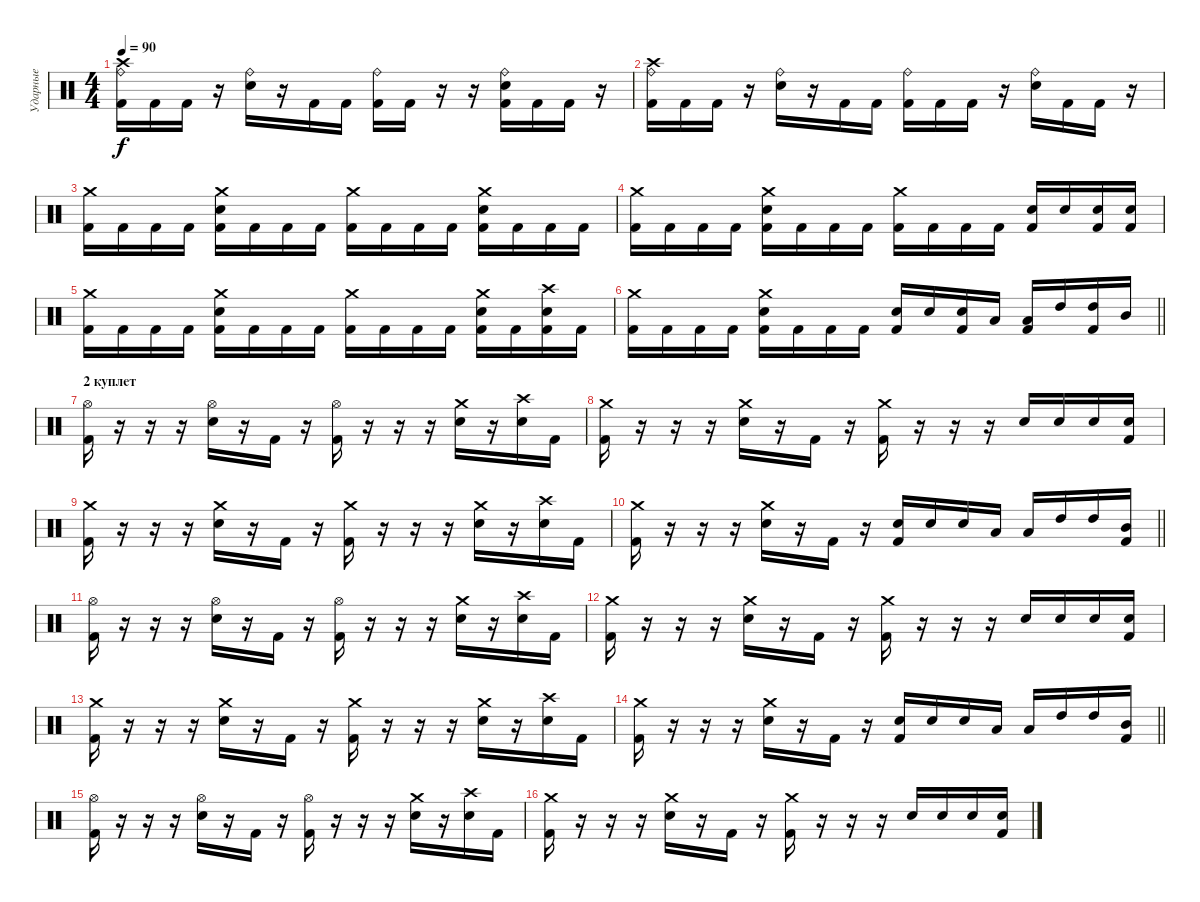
\track ("Ударные" "Ударные") {instrument percussion}
\staff {score}
\articulation defaults
\ts (4 4)
\tempo 90
\clef neutral
\ks c
("Ride (bell)" "Crash high (hit)" "Kick (hit) 2").16{dy f} "Kick (hit) 2".16 "Kick (hit) 2".16 r.16 ("Ride (bell)" "Snare (hit) 2").16 r.16 "Kick (hit) 2".16 "Kick (hit) 2".16 ("Ride (bell)" "Kick (hit) 2").16 "Kick (hit) 2".16 r.16 r.16 ("Ride (bell)" "Snare (hit) 2" "Kick (hit) 2").16 "Kick (hit) 2".16 "Kick (hit) 2".16 r.16 |
("Ride (bell)" "Crash high (hit)" "Kick (hit) 2").16 "Kick (hit) 2".16 "Kick (hit) 2".16 r.16 ("Ride (bell)" "Snare (hit) 2").16 r.16 "Kick (hit) 2".16 "Kick (hit) 2".16 ("Ride (bell)" "Kick (hit) 2").16 "Kick (hit) 2".16 "Kick (hit) 2".16 r.16 ("Ride (bell)" "Snare (hit) 2").16 "Kick (hit) 2".16 "Kick (hit) 2".16 r.16 |
("Crash medium (hit)" "Kick (hit) 2").16 "Kick (hit) 2".16 "Kick (hit) 2".16 "Kick (hit) 2".16 ("Crash medium (hit)" "Snare (hit) 2" "Kick (hit) 2").16 "Kick (hit) 2".16 "Kick (hit) 2".16 "Kick (hit) 2".16 ("Crash medium (hit)" "Kick (hit) 2").16 "Kick (hit) 2".16 "Kick (hit) 2".16 "Kick (hit) 2".16 ("Crash medium (hit)" "Snare (hit) 2" "Kick (hit) 2").16 "Kick (hit) 2".16 "Kick (hit) 2".16 "Kick (hit) 2".16 |
("Crash medium (hit)" "Kick (hit) 2").16 "Kick (hit) 2".16 "Kick (hit) 2".16 "Kick (hit) 2".16 ("Crash medium (hit)" "Snare (hit) 2" "Kick (hit) 2").16 "Kick (hit) 2".16 "Kick (hit) 2".16 "Kick (hit) 2".16 ("Crash medium (hit)" "Kick (hit) 2").16 "Kick (hit) 2".16 "Kick (hit) 2".16 "Kick (hit) 2".16 ("Snare (hit) 2" "Kick (hit) 2").16 "Snare (hit) 2".16 ("Snare (hit) 2" "Kick (hit) 2").16 ("Snare (hit) 2" "Kick (hit) 2").16 |
("Crash medium (hit)" "Kick (hit) 2").16 "Kick (hit) 2".16 "Kick (hit) 2".16 "Kick (hit) 2".16 ("Crash medium (hit)" "Snare (hit) 2" "Kick (hit) 2").16 "Kick (hit) 2".16 "Kick (hit) 2".16 "Kick (hit) 2".16 ("Crash medium (hit)" "Kick (hit) 2").16 "Kick (hit) 2".16 "Kick (hit) 2".16 "Kick (hit) 2".16 ("Crash medium (hit)" "Snare (hit) 2" "Kick (hit) 2").16 "Kick (hit) 2".16 ("Crash high (hit)" "Snare (hit) 2" "Kick (hit) 2").16 "Kick (hit) 2".16 |
\barLineRight lightlight
("Crash medium (hit)" "Kick (hit) 2").16 "Kick (hit) 2".16 "Kick (hit) 2".16 "Kick (hit) 2".16 ("Crash medium (hit)" "Snare (hit) 2" "Kick (hit) 2").16 "Kick (hit) 2".16 "Kick (hit) 2".16 "Kick (hit) 2".16 ("Snare (hit) 2" "Kick (hit) 2").16 "Snare (hit) 2".16 ("Snare (hit) 2" "Kick (hit) 2").16 "Low Tom (hit)".16 ("Low Tom (hit)" "Kick (hit) 2").16 "High Tom (hit)".16 ("High Tom (hit)" "Kick (hit) 2").16 "Mid Tom (hit)".16 |
\section ("" "2 куплет")
("Hi-Hat (open)" "Kick (hit) 2").16 r.16 r.16 r.16 ("Hi-Hat (open)" "Snare (hit) 2").16 r.16 "Kick (hit) 2".16 r.16 ("Hi-Hat (open)" "Kick (hit) 2").16 r.16 r.16 r.16 ("Crash medium (hit)" "Snare (hit) 2").16 r.16 ("Crash high (hit)" "Snare (hit) 2").16 "Kick (hit) 2".16 |
("Crash medium (hit)" "Kick (hit) 2").16 r.16 r.16 r.16 ("Crash medium (hit)" "Snare (hit) 2").16 r.16 "Kick (hit) 2".16 r.16 ("Crash medium (hit)" "Kick (hit) 2").16 r.16 r.16 r.16 "Snare (hit) 2".16 "Snare (hit) 2".16 "Snare (hit) 2".16 ("Snare (hit) 2" "Kick (hit) 2").16 |
("Crash medium (hit)" "Kick (hit) 2").16 r.16 r.16 r.16 ("Crash medium (hit)" "Snare (hit) 2").16 r.16 "Kick (hit) 2".16 r.16 ("Crash medium (hit)" "Kick (hit) 2").16 r.16 r.16 r.16 ("Crash medium (hit)" "Snare (hit) 2").16 r.16 ("Crash high (hit)" "Snare (hit) 2").16 "Kick (hit) 2".16 |
\barLineRight lightlight
("Crash medium (hit)" "Kick (hit) 2").16 r.16 r.16 r.16 ("Crash medium (hit)" "Snare (hit) 2").16 r.16 "Kick (hit) 2".16 r.16 ("Snare (hit) 2" "Kick (hit) 2").16 "Snare (hit) 2".16 "Snare (hit) 2".16 "Low Tom (hit)".16 "Low Tom (hit)".16 "High Tom (hit)".16 "High Tom (hit)".16 ("Mid Tom (hit)" "Kick (hit) 2").16 |
("Hi-Hat (open)" "Kick (hit) 2").16 r.16 r.16 r.16 ("Hi-Hat (open)" "Snare (hit) 2").16 r.16 "Kick (hit) 2".16 r.16 ("Hi-Hat (open)" "Kick (hit) 2").16 r.16 r.16 r.16 ("Crash medium (hit)" "Snare (hit) 2").16 r.16 ("Crash high (hit)" "Snare (hit) 2").16 "Kick (hit) 2".16 |
("Crash medium (hit)" "Kick (hit) 2").16 r.16 r.16 r.16 ("Crash medium (hit)" "Snare (hit) 2").16 r.16 "Kick (hit) 2".16 r.16 ("Crash medium (hit)" "Kick (hit) 2").16 r.16 r.16 r.16 "Snare (hit) 2".16 "Snare (hit) 2".16 "Snare (hit) 2".16 ("Snare (hit) 2" "Kick (hit) 2").16 |
("Crash medium (hit)" "Kick (hit) 2").16 r.16 r.16 r.16 ("Crash medium (hit)" "Snare (hit) 2").16 r.16 "Kick (hit) 2".16 r.16 ("Crash medium (hit)" "Kick (hit) 2").16 r.16 r.16 r.16 ("Crash medium (hit)" "Snare (hit) 2").16 r.16 ("Crash high (hit)" "Snare (hit) 2").16 "Kick (hit) 2".16 |
\barLineRight lightlight
("Crash medium (hit)" "Kick (hit) 2").16 r.16 r.16 r.16 ("Crash medium (hit)" "Snare (hit) 2").16 r.16 "Kick (hit) 2".16 r.16 ("Snare (hit) 2" "Kick (hit) 2").16 "Snare (hit) 2".16 "Snare (hit) 2".16 "Low Tom (hit)".16 "Low Tom (hit)".16 "High Tom (hit)".16 "High Tom (hit)".16 ("Mid Tom (hit)" "Kick (hit) 2").16 |
("Hi-Hat (open)" "Kick (hit) 2").16 r.16 r.16 r.16 ("Hi-Hat (open)" "Snare (hit) 2").16 r.16 "Kick (hit) 2".16 r.16 ("Hi-Hat (open)" "Kick (hit) 2").16 r.16 r.16 r.16 ("Crash medium (hit)" "Snare (hit) 2").16 r.16 ("Crash high (hit)" "Snare (hit) 2").16 "Kick (hit) 2".16 |
("Crash medium (hit)" "Kick (hit) 2").16 r.16 r.16 r.16 ("Crash medium (hit)" "Snare (hit) 2").16 r.16 "Kick (hit) 2".16 r.16 ("Crash medium (hit)" "Kick (hit) 2").16 r.16 r.16 r.16 "Snare (hit) 2".16 "Snare (hit) 2".16 "Snare (hit) 2".16 ("Snare (hit) 2" "Kick (hit) 2").16
